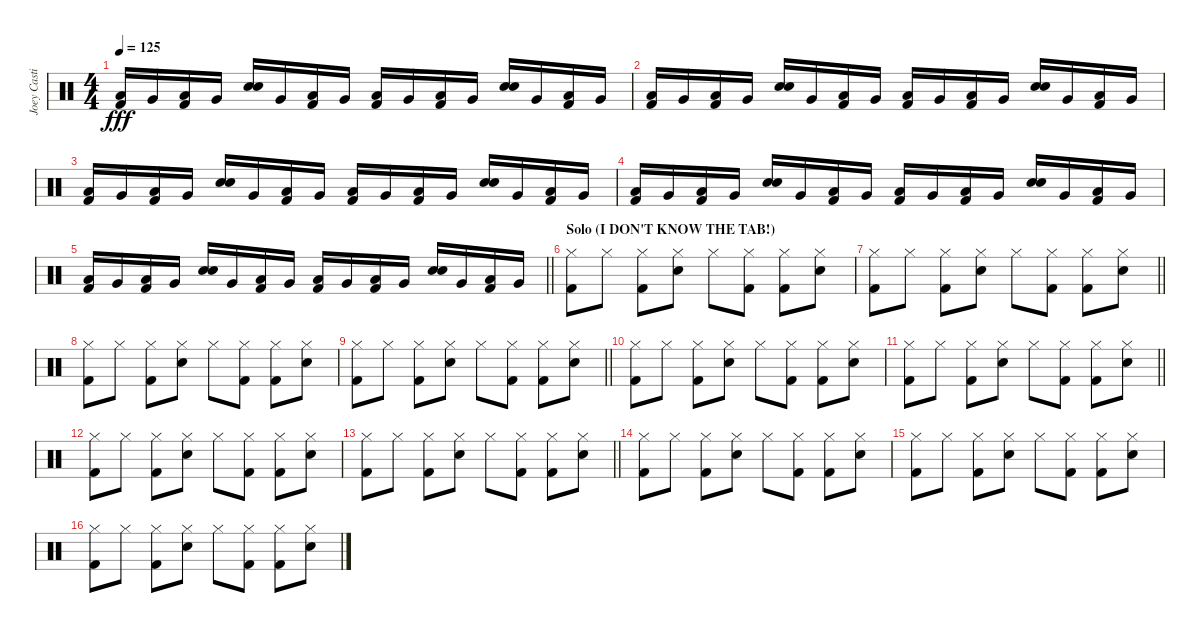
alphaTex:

\track ("Joey Castillo" "Joey Casti") {instrument percussion}
\staff {score}
\articulation defaults
\ts (4 4)
\tempo 125
\clef neutral
\ks c
("Low Tom (hit)" "Kick (hit) 2").16{dy fff} "Very Low Tom (hit)".16 ("Low Tom (hit)" "Kick (hit) 2").16 "Very Low Tom (hit)".16 ("Electric Snare (hit)" "Electric Snare (hit)").16{bu 480} "Very Low Tom (hit)".16 ("Low Tom (hit)" "Kick (hit) 2").16 "Very Low Tom (hit)".16 ("Low Tom (hit)" "Kick (hit) 2").16 "Very Low Tom (hit)".16 ("Low Tom (hit)" "Kick (hit) 2").16 "Very Low Tom (hit)".16 ("Electric Snare (hit)" "Electric Snare (hit)").16{bu 480} "Very Low Tom (hit)".16 ("Low Tom (hit)" "Kick (hit) 2").16 "Very Low Tom (hit)".16 |
("Low Tom (hit)" "Kick (hit) 2").16 "Very Low Tom (hit)".16 ("Low Tom (hit)" "Kick (hit) 2").16 "Very Low Tom (hit)".16 ("Electric Snare (hit)" "Electric Snare (hit)").16{bu 480} "Very Low Tom (hit)".16 ("Low Tom (hit)" "Kick (hit) 2").16 "Very Low Tom (hit)".16 ("Low Tom (hit)" "Kick (hit) 2").16 "Very Low Tom (hit)".16 ("Low Tom (hit)" "Kick (hit) 2").16 "Very Low Tom (hit)".16 ("Electric Snare (hit)" "Electric Snare (hit)").16{bu 480} "Very Low Tom (hit)".16 ("Low Tom (hit)" "Kick (hit) 2").16 "Very Low Tom (hit)".16 |
("Low Tom (hit)" "Kick (hit) 2").16 "Very Low Tom (hit)".16 ("Low Tom (hit)" "Kick (hit) 2").16 "Very Low Tom (hit)".16 ("Electric Snare (hit)" "Electric Snare (hit)").16{bu 480} "Very Low Tom (hit)".16 ("Low Tom (hit)" "Kick (hit) 2").16 "Very Low Tom (hit)".16 ("Low Tom (hit)" "Kick (hit) 2").16 "Very Low Tom (hit)".16 ("Low Tom (hit)" "Kick (hit) 2").16 "Very Low Tom (hit)".16 ("Electric Snare (hit)" "Electric Snare (hit)").16{bu 480} "Very Low Tom (hit)".16 ("Low Tom (hit)" "Kick (hit) 2").16 "Very Low Tom (hit)".16 |
("Low Tom (hit)" "Kick (hit) 2").16 "Very Low Tom (hit)".16 ("Low Tom (hit)" "Kick (hit) 2").16 "Very Low Tom (hit)".16 ("Electric Snare (hit)" "Electric Snare (hit)").16{bu 480} "Very Low Tom (hit)".16 ("Low Tom (hit)" "Kick (hit) 2").16 "Very Low Tom (hit)".16 ("Low Tom (hit)" "Kick (hit) 2").16 "Very Low Tom (hit)".16 ("Low Tom (hit)" "Kick (hit) 2").16 "Very Low Tom (hit)".16 ("Electric Snare (hit)" "Electric Snare (hit)").16{bu 480} "Very Low Tom (hit)".16 ("Low Tom (hit)" "Kick (hit) 2").16 "Very Low Tom (hit)".16 |
\barLineRight lightlight
("Low Tom (hit)" "Kick (hit) 2").16 "Very Low Tom (hit)".16 ("Low Tom (hit)" "Kick (hit) 2").16 "Very Low Tom (hit)".16 ("Electric Snare (hit)" "Electric Snare (hit)").16{bu 480} "Very Low Tom (hit)".16 ("Low Tom (hit)" "Kick (hit) 2").16 "Very Low Tom (hit)".16 ("Low Tom (hit)" "Kick (hit) 2").16 "Very Low Tom (hit)".16 ("Low Tom (hit)" "Kick (hit) 2").16 "Very Low Tom (hit)".16 ("Electric Snare (hit)" "Electric Snare (hit)").16{bu 480} "Very Low Tom (hit)".16 ("Low Tom (hit)" "Kick (hit) 2").16 "Very Low Tom (hit)".16 |
\section ("" "Solo (I DON'T KNOW THE TAB!)")
("Hi-Hat (closed)" "Kick (hit) 2").8 "Hi-Hat (closed)".8 ("Hi-Hat (closed)" "Kick (hit) 2").8 ("Hi-Hat (closed)" "Electric Snare (hit)").8 "Hi-Hat (closed)".8 ("Hi-Hat (closed)" "Kick (hit) 2").8 ("Hi-Hat (closed)" "Kick (hit) 2").8 ("Hi-Hat (closed)" "Electric Snare (hit)").8 |
\barLineRight lightlight
("Hi-Hat (closed)" "Kick (hit) 2").8 "Hi-Hat (closed)".8 ("Hi-Hat (closed)" "Kick (hit) 2").8 ("Hi-Hat (closed)" "Electric Snare (hit)").8 "Hi-Hat (closed)".8 ("Hi-Hat (closed)" "Kick (hit) 2").8 ("Hi-Hat (closed)" "Kick (hit) 2").8 ("Hi-Hat (closed)" "Electric Snare (hit)").8 |
("Hi-Hat (closed)" "Kick (hit) 2").8 "Hi-Hat (closed)".8 ("Hi-Hat (closed)" "Kick (hit) 2").8 ("Hi-Hat (closed)" "Electric Snare (hit)").8 "Hi-Hat (closed)".8 ("Hi-Hat (closed)" "Kick (hit) 2").8 ("Hi-Hat (closed)" "Kick (hit) 2").8 ("Hi-Hat (closed)" "Electric Snare (hit)").8 |
\barLineRight lightlight
("Hi-Hat (closed)" "Kick (hit) 2").8 "Hi-Hat (closed)".8 ("Hi-Hat (closed)" "Kick (hit) 2").8 ("Hi-Hat (closed)" "Electric Snare (hit)").8 "Hi-Hat (closed)".8 ("Hi-Hat (closed)" "Kick (hit) 2").8 ("Hi-Hat (closed)" "Kick (hit) 2").8 ("Hi-Hat (closed)" "Electric Snare (hit)").8 |
("Hi-Hat (closed)" "Kick (hit) 2").8 "Hi-Hat (closed)".8 ("Hi-Hat (closed)" "Kick (hit) 2").8 ("Hi-Hat (closed)" "Electric Snare (hit)").8 "Hi-Hat (closed)".8 ("Hi-Hat (closed)" "Kick (hit) 2").8 ("Hi-Hat (closed)" "Kick (hit) 2").8 ("Hi-Hat (closed)" "Electric Snare (hit)").8 |
\barLineRight lightlight
("Hi-Hat (closed)" "Kick (hit) 2").8 "Hi-Hat (closed)".8 ("Hi-Hat (closed)" "Kick (hit) 2").8 ("Hi-Hat (closed)" "Electric Snare (hit)").8 "Hi-Hat (closed)".8 ("Hi-Hat (closed)" "Kick (hit) 2").8 ("Hi-Hat (closed)" "Kick (hit) 2").8 ("Hi-Hat (closed)" "Electric Snare (hit)").8 |
("Hi-Hat (closed)" "Kick (hit) 2").8 "Hi-Hat (closed)".8 ("Hi-Hat (closed)" "Kick (hit) 2").8 ("Hi-Hat (closed)" "Electric Snare (hit)").8 "Hi-Hat (closed)".8 ("Hi-Hat (closed)" "Kick (hit) 2").8 ("Hi-Hat (closed)" "Kick (hit) 2").8 ("Hi-Hat (closed)" "Electric Snare (hit)").8 |
\barLineRight lightlight
("Hi-Hat (closed)" "Kick (hit) 2").8 "Hi-Hat (closed)".8 ("Hi-Hat (closed)" "Kick (hit) 2").8 ("Hi-Hat (closed)" "Electric Snare (hit)").8 "Hi-Hat (closed)".8 ("Hi-Hat (closed)" "Kick (hit) 2").8 ("Hi-Hat (closed)" "Kick (hit) 2").8 ("Hi-Hat (closed)" "Electric Snare (hit)").8 |
("Hi-Hat (closed)" "Kick (hit) 2").8 "Hi-Hat (closed)".8 ("Hi-Hat (closed)" "Kick (hit) 2").8 ("Hi-Hat (closed)" "Electric Snare (hit)").8 "Hi-Hat (closed)".8 ("Hi-Hat (closed)" "Kick (hit) 2").8 ("Hi-Hat (closed)" "Kick (hit) 2").8 ("Hi-Hat (closed)" "Electric Snare (hit)").8 |
("Hi-Hat (closed)" "Kick (hit) 2").8 "Hi-Hat (closed)".8 ("Hi-Hat (closed)" "Kick (hit) 2").8 ("Hi-Hat (closed)" "Electric Snare (hit)").8 "Hi-Hat (closed)".8 ("Hi-Hat (closed)" "Kick (hit) 2").8 ("Hi-Hat (closed)" "Kick (hit) 2").8 ("Hi-Hat (closed)" "Electric Snare (hit)").8 |
("Hi-Hat (closed)" "Kick (hit) 2").8 "Hi-Hat (closed)".8 ("Hi-Hat (closed)" "Kick (hit) 2").8 ("Hi-Hat (closed)" "Electric Snare (hit)").8 "Hi-Hat (closed)".8 ("Hi-Hat (closed)" "Kick (hit) 2").8 ("Hi-Hat (closed)" "Kick (hit) 2").8 ("Hi-Hat (closed)" "Electric Snare (hit)").8
